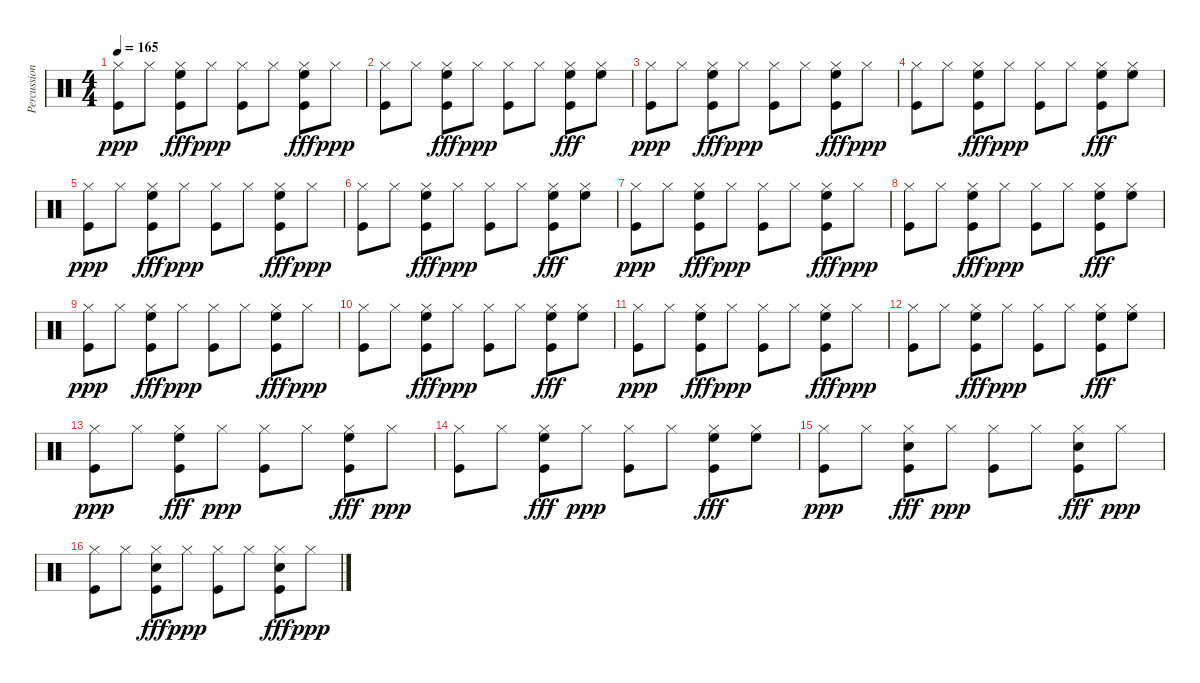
\track ("Percussions" "Percussion") {instrument percussion}
\staff {score}
\articulation defaults
\ts (4 4)
\tempo 165
\clef neutral
\ks c
("Kick (hit)" "Hi-Hat (closed)").8{dy ppp} "Hi-Hat (closed)".8 ("Kick (hit)" "Hi-Hat (closed)" "High Floor Tom (hit)").8{dy fff} "Hi-Hat (closed)".8{dy ppp} ("Kick (hit)" "Hi-Hat (closed)").8 "Hi-Hat (closed)".8 ("Kick (hit)" "Hi-Hat (closed)" "High Floor Tom (hit)").8{dy fff} "Hi-Hat (closed)".8{dy ppp} |
("Kick (hit)" "Hi-Hat (closed)").8 "Hi-Hat (closed)".8 ("Kick (hit)" "Hi-Hat (closed)" "High Floor Tom (hit)").8{dy fff} "Hi-Hat (closed)".8{dy ppp} ("Kick (hit)" "Hi-Hat (closed)").8 "Hi-Hat (closed)".8 ("Kick (hit)" "Hi-Hat (closed)" "High Floor Tom (hit)").8{dy fff} ("Hi-Hat (closed)" "High Floor Tom (hit)").8 |
("Kick (hit)" "Hi-Hat (closed)").8{dy ppp} "Hi-Hat (closed)".8 ("Kick (hit)" "Hi-Hat (closed)" "High Floor Tom (hit)").8{dy fff} "Hi-Hat (closed)".8{dy ppp} ("Kick (hit)" "Hi-Hat (closed)").8 "Hi-Hat (closed)".8 ("Kick (hit)" "Hi-Hat (closed)" "High Floor Tom (hit)").8{dy fff} "Hi-Hat (closed)".8{dy ppp} |
("Kick (hit)" "Hi-Hat (closed)").8 "Hi-Hat (closed)".8 ("Kick (hit)" "Hi-Hat (closed)" "High Floor Tom (hit)").8{dy fff} "Hi-Hat (closed)".8{dy ppp} ("Kick (hit)" "Hi-Hat (closed)").8 "Hi-Hat (closed)".8 ("Kick (hit)" "Hi-Hat (closed)" "High Floor Tom (hit)").8{dy fff} ("Hi-Hat (closed)" "High Floor Tom (hit)").8 |
("Kick (hit)" "Hi-Hat (closed)").8{dy ppp} "Hi-Hat (closed)".8 ("Kick (hit)" "Hi-Hat (closed)" "High Floor Tom (hit)").8{dy fff} "Hi-Hat (closed)".8{dy ppp} ("Kick (hit)" "Hi-Hat (closed)").8 "Hi-Hat (closed)".8 ("Kick (hit)" "Hi-Hat (closed)" "High Floor Tom (hit)").8{dy fff} "Hi-Hat (closed)".8{dy ppp} |
("Kick (hit)" "Hi-Hat (closed)").8 "Hi-Hat (closed)".8 ("Kick (hit)" "Hi-Hat (closed)" "High Floor Tom (hit)").8{dy fff} "Hi-Hat (closed)".8{dy ppp} ("Kick (hit)" "Hi-Hat (closed)").8 "Hi-Hat (closed)".8 ("Kick (hit)" "Hi-Hat (closed)" "High Floor Tom (hit)").8{dy fff} ("Hi-Hat (closed)" "High Floor Tom (hit)").8 |
("Kick (hit)" "Hi-Hat (closed)").8{dy ppp} "Hi-Hat (closed)".8 ("Kick (hit)" "Hi-Hat (closed)" "High Floor Tom (hit)").8{dy fff} "Hi-Hat (closed)".8{dy ppp} ("Kick (hit)" "Hi-Hat (closed)").8 "Hi-Hat (closed)".8 ("Kick (hit)" "Hi-Hat (closed)" "High Floor Tom (hit)").8{dy fff} "Hi-Hat (closed)".8{dy ppp} |
("Kick (hit)" "Hi-Hat (closed)").8 "Hi-Hat (closed)".8 ("Kick (hit)" "Hi-Hat (closed)" "High Floor Tom (hit)").8{dy fff} "Hi-Hat (closed)".8{dy ppp} ("Kick (hit)" "Hi-Hat (closed)").8 "Hi-Hat (closed)".8 ("Kick (hit)" "Hi-Hat (closed)" "High Floor Tom (hit)").8{dy fff} ("Hi-Hat (closed)" "High Floor Tom (hit)").8 |
("Kick (hit)" "Hi-Hat (closed)").8{dy ppp} "Hi-Hat (closed)".8 ("Kick (hit)" "Hi-Hat (closed)" "High Floor Tom (hit)").8{dy fff} "Hi-Hat (closed)".8{dy ppp} ("Kick (hit)" "Hi-Hat (closed)").8 "Hi-Hat (closed)".8 ("Kick (hit)" "Hi-Hat (closed)" "High Floor Tom (hit)").8{dy fff} "Hi-Hat (closed)".8{dy ppp} |
("Kick (hit)" "Hi-Hat (closed)").8 "Hi-Hat (closed)".8 ("Kick (hit)" "Hi-Hat (closed)" "High Floor Tom (hit)").8{dy fff} "Hi-Hat (closed)".8{dy ppp} ("Kick (hit)" "Hi-Hat (closed)").8 "Hi-Hat (closed)".8 ("Kick (hit)" "Hi-Hat (closed)" "High Floor Tom (hit)").8{dy fff} ("Hi-Hat (closed)" "High Floor Tom (hit)").8 |
("Kick (hit)" "Hi-Hat (closed)").8{dy ppp} "Hi-Hat (closed)".8 ("Kick (hit)" "Hi-Hat (closed)" "High Floor Tom (hit)").8{dy fff} "Hi-Hat (closed)".8{dy ppp} ("Kick (hit)" "Hi-Hat (closed)").8 "Hi-Hat (closed)".8 ("Kick (hit)" "Hi-Hat (closed)" "High Floor Tom (hit)").8{dy fff} "Hi-Hat (closed)".8{dy ppp} |
("Kick (hit)" "Hi-Hat (closed)").8 "Hi-Hat (closed)".8 ("Kick (hit)" "Hi-Hat (closed)" "High Floor Tom (hit)").8{dy fff} "Hi-Hat (closed)".8{dy ppp} ("Kick (hit)" "Hi-Hat (closed)").8 "Hi-Hat (closed)".8 ("Kick (hit)" "Hi-Hat (closed)" "High Floor Tom (hit)").8{dy fff} ("Hi-Hat (closed)" "High Floor Tom (hit)").8 |
("Kick (hit)" "Hi-Hat (closed)").8{dy ppp} "Hi-Hat (closed)".8 ("Kick (hit)" "Hi-Hat (closed)" "High Floor Tom (hit)").8{dy fff} "Hi-Hat (closed)".8{dy ppp} ("Kick (hit)" "Hi-Hat (closed)").8 "Hi-Hat (closed)".8 ("Kick (hit)" "Hi-Hat (closed)" "High Floor Tom (hit)").8{dy fff} "Hi-Hat (closed)".8{dy ppp} |
("Kick (hit)" "Hi-Hat (closed)").8 "Hi-Hat (closed)".8 ("Kick (hit)" "Hi-Hat (closed)" "High Floor Tom (hit)").8{dy fff} "Hi-Hat (closed)".8{dy ppp} ("Kick (hit)" "Hi-Hat (closed)").8 "Hi-Hat (closed)".8 ("Kick (hit)" "Hi-Hat (closed)" "High Floor Tom (hit)").8{dy fff} ("Hi-Hat (closed)" "High Floor Tom (hit)").8 |
("Kick (hit)" "Hi-Hat (closed)").8{dy ppp} "Hi-Hat (closed)".8 ("Kick (hit)" "Hi-Hat (closed)" "Snare (hit) 2").8{dy fff} "Hi-Hat (closed)".8{dy ppp} ("Kick (hit)" "Hi-Hat (closed)").8 "Hi-Hat (closed)".8 ("Kick (hit)" "Hi-Hat (closed)" "Snare (hit) 2").8{dy fff} "Hi-Hat (closed)".8{dy ppp} |
("Kick (hit)" "Hi-Hat (closed)").8 "Hi-Hat (closed)".8 ("Kick (hit)" "Hi-Hat (closed)" "Snare (hit) 2").8{dy fff} "Hi-Hat (closed)".8{dy ppp} ("Kick (hit)" "Hi-Hat (closed)").8 "Hi-Hat (closed)".8 ("Kick (hit)" "Hi-Hat (closed)" "Snare (hit) 2").8{dy fff} "Hi-Hat (closed)".8{dy ppp}
